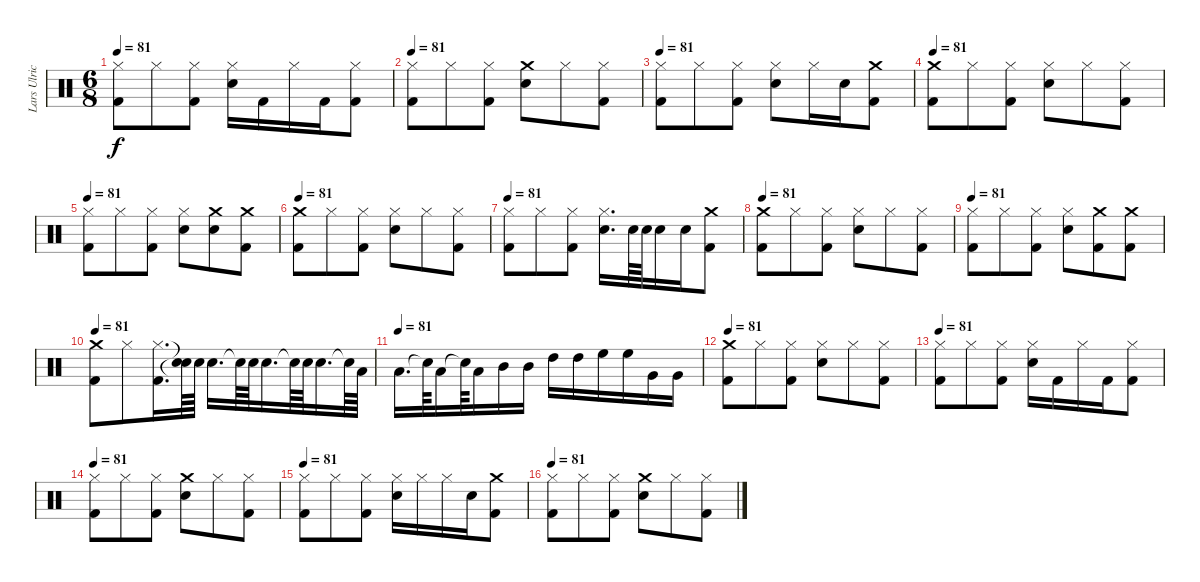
\track ("Lars Ulrich (Drums)" "Lars Ulric") {instrument percussion}
\staff {score}
\articulation defaults
\ts (6 8)
\tempo 81
\clef neutral
\ks c
("Hi-Hat (closed)" "Kick (hit) 2").8{dy f} "Hi-Hat (closed)".8 ("Kick (hit) 2" "Hi-Hat (closed)").8 ("Snare (hit) 2" "Hi-Hat (closed)").16 "Kick (hit) 2".16 "Hi-Hat (closed)".16 "Kick (hit) 2".16 ("Kick (hit) 2" "Hi-Hat (closed)").8 |
\tempo 81
("Kick (hit) 2" "Hi-Hat (closed)").8 "Hi-Hat (closed)".8 ("Kick (hit) 2" "Hi-Hat (closed)").8 ("Crash medium (hit)" "Snare (hit) 2").8 "Hi-Hat (closed)".8 ("Hi-Hat (closed)" "Kick (hit) 2").8 |
\tempo 81
("Kick (hit) 2" "Hi-Hat (closed)").8 "Hi-Hat (closed)".8 ("Kick (hit) 2" "Hi-Hat (closed)").8 ("Hi-Hat (closed)" "Snare (hit) 2").8 "Hi-Hat (closed)".16 "Snare (hit) 2".16 ("Crash medium (hit)" "Kick (hit) 2").8 |
\tempo 81
("Kick (hit) 2" "Crash medium (hit)").8 "Hi-Hat (closed)".8 ("Hi-Hat (closed)" "Kick (hit) 2").8 ("Snare (hit) 2" "Hi-Hat (closed)").8 "Hi-Hat (closed)".8 ("Kick (hit) 2" "Hi-Hat (closed)").8 |
\tempo 81
("Kick (hit) 2" "Hi-Hat (closed)").8 "Hi-Hat (closed)".8 ("Hi-Hat (closed)" "Kick (hit) 2").8 ("Snare (hit) 2" "Hi-Hat (closed)").8 ("Crash medium (hit)" "Snare (hit) 2").8 ("Crash medium (hit)" "Kick (hit) 2").8 |
\tempo 81
("Crash medium (hit)" "Kick (hit) 2").8 "Hi-Hat (closed)".8 ("Kick (hit) 2" "Hi-Hat (closed)").8 ("Hi-Hat (closed)" "Snare (hit) 2").8 "Hi-Hat (closed)".8 ("Kick (hit) 2" "Hi-Hat (closed)").8 |
\tempo 81
("Hi-Hat (closed)" "Kick (hit) 2").8 "Hi-Hat (closed)".8 ("Hi-Hat (closed)" "Kick (hit) 2").8 ("Snare (hit) 2" "Hi-Hat (closed)").16{d} "Snare (hit) 2".64 "Snare (hit) 2".64 "Snare (hit) 2".16 "Snare (hit) 2".16 ("Kick (hit) 2" "Crash medium (hit)").8 |
\tempo 81
("Crash medium (hit)" "Kick (hit) 2").8 "Hi-Hat (closed)".8 ("Kick (hit) 2" "Hi-Hat (closed)").8 ("Snare (hit) 2" "Hi-Hat (closed)").8 "Hi-Hat (closed)".8 ("Kick (hit) 2" "Hi-Hat (closed)").8 |
\tempo 81
("Hi-Hat (closed)" "Kick (hit) 2").8 "Hi-Hat (closed)".8 ("Kick (hit) 2" "Hi-Hat (closed)").8 ("Hi-Hat (closed)" "Snare (hit) 2").8 ("Kick (hit) 2" "Crash medium (hit)").8 ("Kick (hit) 2" "Crash medium (hit)").8 |
\tempo 81
("Kick (hit) 2" "Crash medium (hit)").8 "Hi-Hat (closed)".8 ("Kick (hit) 2" "Hi-Hat (closed)").16{d} ("Snare (hit)"{t} "Snare (hit)"{t}).64 "Snare (hit) 2".64 "Snare (hit) 2".16{d} "Snare (hit)"{t}.64 "Snare (hit) 2".64 "Snare (hit) 2".16{d} "Snare (hit)"{t}.64 "Snare (hit) 2".64 "Snare (hit) 2".16{d} "Snare (hit)"{t}.64 "Low Tom (hit)".64 |
\tempo (81)
"Low Tom (hit)".16{d} "Snare (hit)"{t}.64 "Low Tom (hit)".16 "Snare (hit)"{t}.64 "Low Tom (hit)".16 "Mid Tom (hit)".16 "Mid Tom (hit)".16 "High Tom (hit)".16 "High Tom (hit)".16 "High Floor Tom (hit)".16 "High Floor Tom (hit)".16 "Very Low Tom (hit)".16 "Very Low Tom (hit)".16 |
\tempo 81
("Kick (hit) 2" "Crash medium (hit)").8 "Hi-Hat (closed)".8 ("Kick (hit) 2" "Hi-Hat (closed)").8 ("Snare (hit) 2" "Hi-Hat (closed)").8 "Hi-Hat (closed)".8 ("Kick (hit) 2" "Hi-Hat (closed)").8 |
\tempo 81
("Hi-Hat (closed)" "Kick (hit) 2").8 "Hi-Hat (closed)".8 ("Kick (hit) 2" "Hi-Hat (closed)").8 ("Hi-Hat (closed)" "Snare (hit) 2").16 "Kick (hit) 2".16 "Hi-Hat (closed)".16 "Kick (hit) 2".16 ("Kick (hit) 2" "Hi-Hat (closed)").8 |
\tempo 81
("Hi-Hat (closed)" "Kick (hit) 2").8 "Hi-Hat (closed)".8 ("Hi-Hat (closed)" "Kick (hit) 2").8 ("Crash medium (hit)" "Snare (hit) 2").8 "Hi-Hat (closed)".8 ("Kick (hit) 2" "Hi-Hat (closed)").8 |
\tempo 81
("Kick (hit) 2" "Hi-Hat (closed)").8 "Hi-Hat (closed)".8 ("Kick (hit) 2" "Hi-Hat (closed)").8 ("Hi-Hat (closed)" "Snare (hit) 2").16 "Hi-Hat (closed)".16 "Hi-Hat (closed)".16 "Snare (hit) 2".16 ("Crash medium (hit)" "Kick (hit) 2").8 |
\tempo 81
("Kick (hit) 2" "Hi-Hat (closed)").8 "Hi-Hat (closed)".8 ("Kick (hit) 2" "Hi-Hat (closed)").8 ("Crash medium (hit)" "Snare (hit) 2").8 "Hi-Hat (closed)".8 ("Hi-Hat (closed)" "Kick (hit) 2").8
